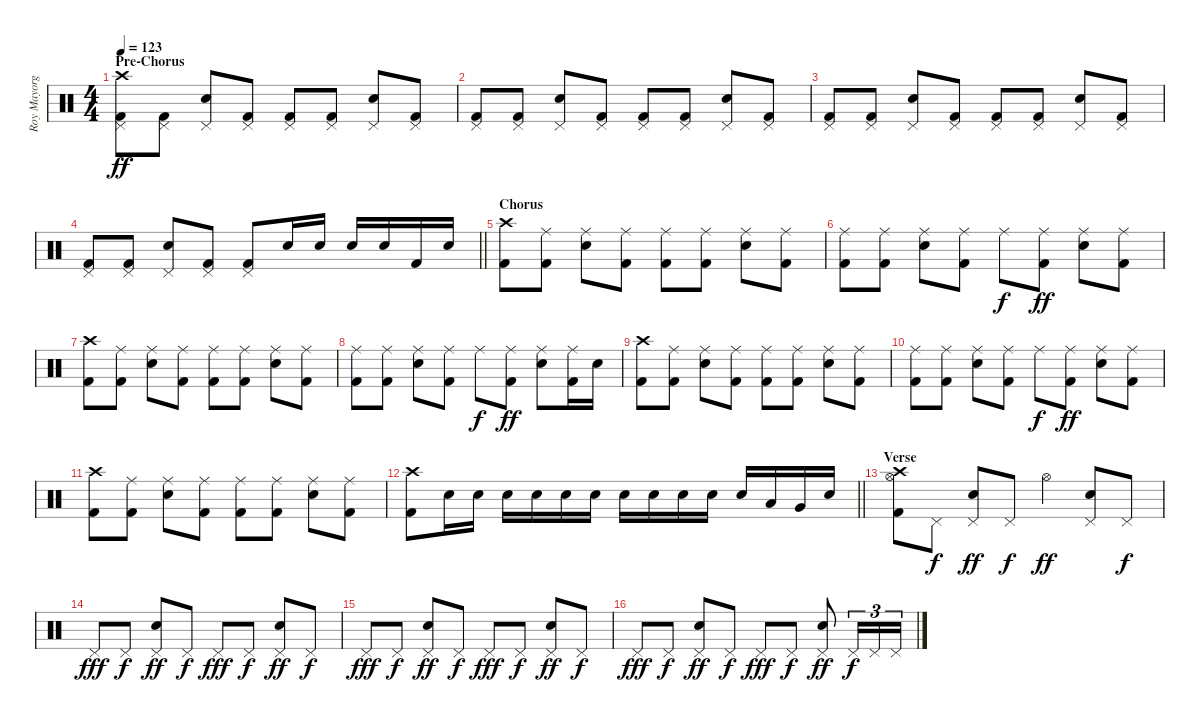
\track ("Roy Mayorga (Drums)" "Roy Mayorg") {instrument percussion}
\staff {score}
\articulation defaults
\ts (4 4)
\section ("" "Pre-Chorus")
\tempo 123
\clef neutral
\ks c
("Crash high (hit)" "Pedal Hi-Hat (hit)" "Kick (hit) 2").8{dy ff} ("Pedal Hi-Hat (hit)" "Kick (hit) 2").8 ("Pedal Hi-Hat (hit)" "Electric Snare (hit)").8 ("Pedal Hi-Hat (hit)" "Kick (hit) 2").8 ("Pedal Hi-Hat (hit)" "Kick (hit) 2").8 ("Pedal Hi-Hat (hit)" "Kick (hit) 2").8 ("Pedal Hi-Hat (hit)" "Electric Snare (hit)").8 ("Pedal Hi-Hat (hit)" "Kick (hit) 2").8 |
("Pedal Hi-Hat (hit)" "Kick (hit) 2").8 ("Pedal Hi-Hat (hit)" "Kick (hit) 2").8 ("Pedal Hi-Hat (hit)" "Electric Snare (hit)").8 ("Pedal Hi-Hat (hit)" "Kick (hit) 2").8 ("Pedal Hi-Hat (hit)" "Kick (hit) 2").8 ("Pedal Hi-Hat (hit)" "Kick (hit) 2").8 ("Pedal Hi-Hat (hit)" "Electric Snare (hit)").8 ("Pedal Hi-Hat (hit)" "Kick (hit) 2").8 |
("Pedal Hi-Hat (hit)" "Kick (hit) 2").8 ("Pedal Hi-Hat (hit)" "Kick (hit) 2").8 ("Pedal Hi-Hat (hit)" "Electric Snare (hit)").8 ("Pedal Hi-Hat (hit)" "Kick (hit) 2").8 ("Pedal Hi-Hat (hit)" "Kick (hit) 2").8 ("Pedal Hi-Hat (hit)" "Kick (hit) 2").8 ("Pedal Hi-Hat (hit)" "Electric Snare (hit)").8 ("Pedal Hi-Hat (hit)" "Kick (hit) 2").8 |
\barLineRight lightlight
("Pedal Hi-Hat (hit)" "Kick (hit) 2").8 ("Pedal Hi-Hat (hit)" "Kick (hit) 2").8 ("Pedal Hi-Hat (hit)" "Electric Snare (hit)").8 ("Pedal Hi-Hat (hit)" "Kick (hit) 2").8 ("Pedal Hi-Hat (hit)" "Kick (hit) 2").8 "Electric Snare (hit)".16 "Electric Snare (hit)".16 "Electric Snare (hit)".16 "Electric Snare (hit)".16 "Kick (hit) 2".16 "Electric Snare (hit)".16 |
\section ("" "Chorus")
("Crash high (hit)" "Kick (hit) 2").8 ("Ride (middle)" "Kick (hit) 2").8 ("Ride (middle)" "Electric Snare (hit)").8 ("Ride (middle)" "Kick (hit) 2").8 ("Ride (middle)" "Kick (hit) 2").8 ("Ride (middle)" "Kick (hit) 2").8 ("Ride (middle)" "Electric Snare (hit)").8 ("Ride (middle)" "Kick (hit) 2").8 |
("Ride (middle)" "Kick (hit) 2").8 ("Ride (middle)" "Kick (hit) 2").8 ("Ride (middle)" "Electric Snare (hit)").8 ("Ride (middle)" "Kick (hit) 2").8 "Ride (middle)".8{dy f} ("Ride (middle)" "Kick (hit) 2").8{dy ff} ("Ride (middle)" "Electric Snare (hit)").8 ("Ride (middle)" "Kick (hit) 2").8 |
("Crash high (hit)" "Kick (hit) 2").8 ("Ride (middle)" "Kick (hit) 2").8 ("Ride (middle)" "Electric Snare (hit)").8 ("Ride (middle)" "Kick (hit) 2").8 ("Ride (middle)" "Kick (hit) 2").8 ("Ride (middle)" "Kick (hit) 2").8 ("Ride (middle)" "Electric Snare (hit)").8 ("Ride (middle)" "Kick (hit) 2").8 |
("Ride (middle)" "Kick (hit) 2").8 ("Ride (middle)" "Kick (hit) 2").8 ("Ride (middle)" "Electric Snare (hit)").8 ("Ride (middle)" "Kick (hit) 2").8 "Ride (middle)".8{dy f} ("Ride (middle)" "Kick (hit) 2").8{dy ff} ("Ride (middle)" "Electric Snare (hit)").8 ("Ride (middle)" "Kick (hit) 2").16 "Electric Snare (hit)".16 |
("Crash high (hit)" "Kick (hit) 2").8 ("Ride (middle)" "Kick (hit) 2").8 ("Ride (middle)" "Electric Snare (hit)").8 ("Ride (middle)" "Kick (hit) 2").8 ("Ride (middle)" "Kick (hit) 2").8 ("Ride (middle)" "Kick (hit) 2").8 ("Ride (middle)" "Electric Snare (hit)").8 ("Ride (middle)" "Kick (hit) 2").8 |
("Ride (middle)" "Kick (hit) 2").8 ("Ride (middle)" "Kick (hit) 2").8 ("Ride (middle)" "Electric Snare (hit)").8 ("Ride (middle)" "Kick (hit) 2").8 "Ride (middle)".8{dy f} ("Ride (middle)" "Kick (hit) 2").8{dy ff} ("Ride (middle)" "Electric Snare (hit)").8 ("Ride (middle)" "Kick (hit) 2").8 |
("Crash high (hit)" "Kick (hit) 2").8 ("Ride (middle)" "Kick (hit) 2").8 ("Ride (middle)" "Electric Snare (hit)").8 ("Ride (middle)" "Kick (hit) 2").8 ("Ride (middle)" "Kick (hit) 2").8 ("Ride (middle)" "Kick (hit) 2").8 ("Ride (middle)" "Electric Snare (hit)").8 ("Ride (middle)" "Kick (hit) 2").8 |
\barLineRight lightlight
("Crash high (hit)" "Kick (hit) 2").8 "Electric Snare (hit)".16 "Electric Snare (hit)".16 "Electric Snare (hit)".16 "Electric Snare (hit)".16 "Electric Snare (hit)".16 "Electric Snare (hit)".16 "Electric Snare (hit)".16 "Electric Snare (hit)".16 "Electric Snare (hit)".16 "Electric Snare (hit)".16 "Electric Snare (hit)".16 "Low Tom (hit)".16 "Very Low Tom (hit)".16 "Electric Snare (hit)".16 |
\section ("" "Verse")
("Crash high (hit)" "Hi-Hat (open)" "Kick (hit) 2").8 "Pedal Hi-Hat (hit)".8{dy f} ("Pedal Hi-Hat (hit)" "Electric Snare (hit)").8{dy ff} "Pedal Hi-Hat (hit)".8{dy f} "Hi-Hat (open)".4{dy ff} ("Pedal Hi-Hat (hit)" "Electric Snare (hit)").8 "Pedal Hi-Hat (hit)".8{dy f} |
"Pedal Hi-Hat (hit)".8{dy fff} "Pedal Hi-Hat (hit)".8{dy f} ("Pedal Hi-Hat (hit)" "Electric Snare (hit)").8{dy ff} "Pedal Hi-Hat (hit)".8{dy f} "Pedal Hi-Hat (hit)".8{dy fff} "Pedal Hi-Hat (hit)".8{dy f} ("Pedal Hi-Hat (hit)" "Electric Snare (hit)").8{dy ff} "Pedal Hi-Hat (hit)".8{dy f} |
"Pedal Hi-Hat (hit)".8{dy fff} "Pedal Hi-Hat (hit)".8{dy f} ("Pedal Hi-Hat (hit)" "Electric Snare (hit)").8{dy ff} "Pedal Hi-Hat (hit)".8{dy f} "Pedal Hi-Hat (hit)".8{dy fff} "Pedal Hi-Hat (hit)".8{dy f} ("Pedal Hi-Hat (hit)" "Electric Snare (hit)").8{dy ff} "Pedal Hi-Hat (hit)".8{dy f} |
"Pedal Hi-Hat (hit)".8{dy fff} "Pedal Hi-Hat (hit)".8{dy f} ("Pedal Hi-Hat (hit)" "Electric Snare (hit)").8{dy ff} "Pedal Hi-Hat (hit)".8{dy f} "Pedal Hi-Hat (hit)".8{dy fff} "Pedal Hi-Hat (hit)".8{dy f} ("Pedal Hi-Hat (hit)" "Electric Snare (hit)").8{dy ff} "Pedal Hi-Hat (hit)".16{tu (3 2) dy f} "Pedal Hi-Hat (hit)".16{tu (3 2)} "Pedal Hi-Hat (hit)".16{tu (3 2)}
